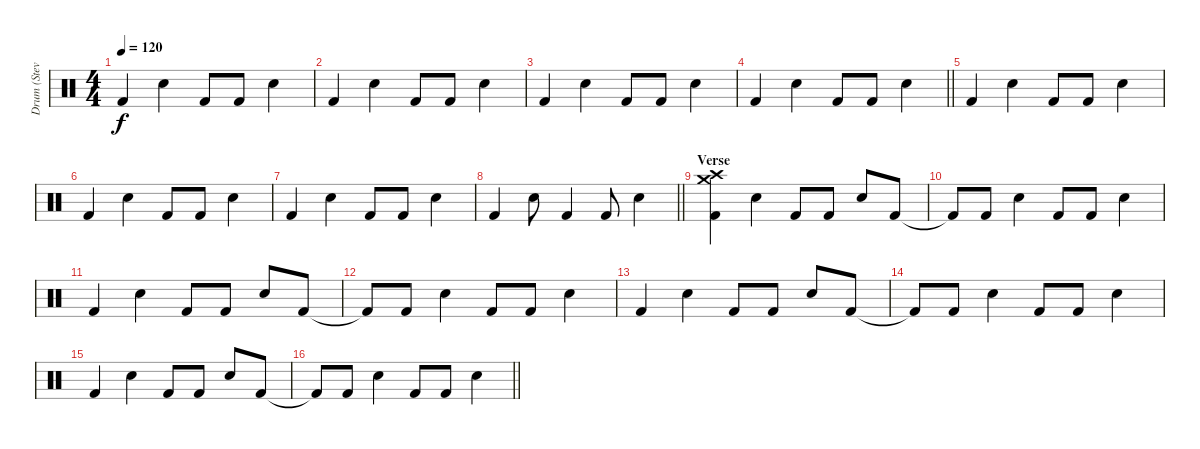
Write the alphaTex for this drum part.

\track ("Drum (Steven)" "Drum (Stev") {instrument percussion}
\staff {score}
\articulation defaults
\ts (4 4)
\tempo 120
\clef neutral
\ks c "Kick (hit) 2".4{dy f} "Snare (hit) 2".4 "Kick (hit) 2".8 "Kick (hit) 2".8 "Snare (hit) 2".4
|
"Kick (hit) 2".4 "Snare (hit) 2".4 "Kick (hit) 2".8 "Kick (hit) 2".8 "Snare (hit) 2".4 |
"Kick (hit) 2".4 "Snare (hit) 2".4 "Kick (hit) 2".8 "Kick (hit) 2".8 "Snare (hit) 2".4 |
\barLineRight lightlight "Kick (hit) 2".4 "Snare (hit) 2".4 "Kick (hit) 2".8 "Kick (hit) 2".8 "Snare (hit) 2".4
|
"Kick (hit) 2".4 "Snare (hit) 2".4 "Kick (hit) 2".8 "Kick (hit) 2".8 "Snare (hit) 2".4 |
"Kick (hit) 2".4 "Snare (hit) 2".4 "Kick (hit) 2".8 "Kick (hit) 2".8 "Snare (hit) 2".4 |
"Kick (hit) 2".4 "Snare (hit) 2".4 "Kick (hit) 2".8 "Kick (hit) 2".8 "Snare (hit) 2".4 |
\barLineRight lightlight "Kick (hit) 2".4 "Snare (hit) 2".8 "Kick (hit) 2".4 "Kick (hit) 2".8 "Snare (hit) 2".4
|
\section ("" "Verse")
("Kick (hit) 2" "Crash high (hit)" "Crash medium (hit)").4 "Snare (hit) 2".4 "Kick (hit) 2".8 "Kick (hit) 2".8 "Snare (hit) 2".8 "Kick (hit) 2".8 |
"Kick (hit) 2"{t}.8 "Kick (hit) 2".8 "Snare (hit) 2".4 "Kick (hit) 2".8 "Kick (hit) 2".8 "Snare (hit) 2".4 |
"Kick (hit) 2".4 "Snare (hit) 2".4 "Kick (hit) 2".8 "Kick (hit) 2".8 "Snare (hit) 2".8 "Kick (hit) 2".8 |
"Kick (hit) 2"{t}.8 "Kick (hit) 2".8 "Snare (hit) 2".4 "Kick (hit) 2".8 "Kick (hit) 2".8 "Snare (hit) 2".4 |
"Kick (hit) 2".4 "Snare (hit) 2".4 "Kick (hit) 2".8 "Kick (hit) 2".8 "Snare (hit) 2".8 "Kick (hit) 2".8 |
"Kick (hit) 2"{t}.8 "Kick (hit) 2".8 "Snare (hit) 2".4 "Kick (hit) 2".8 "Kick (hit) 2".8 "Snare (hit) 2".4 |
"Kick (hit) 2".4 "Snare (hit) 2".4 "Kick (hit) 2".8 "Kick (hit) 2".8 "Snare (hit) 2".8 "Kick (hit) 2".8 |
\barLineRight lightlight "Kick (hit) 2"{t}.8 "Kick (hit) 2".8 "Snare (hit) 2".4 "Kick (hit) 2".8 "Kick (hit) 2".8 "Snare (hit) 2".4
